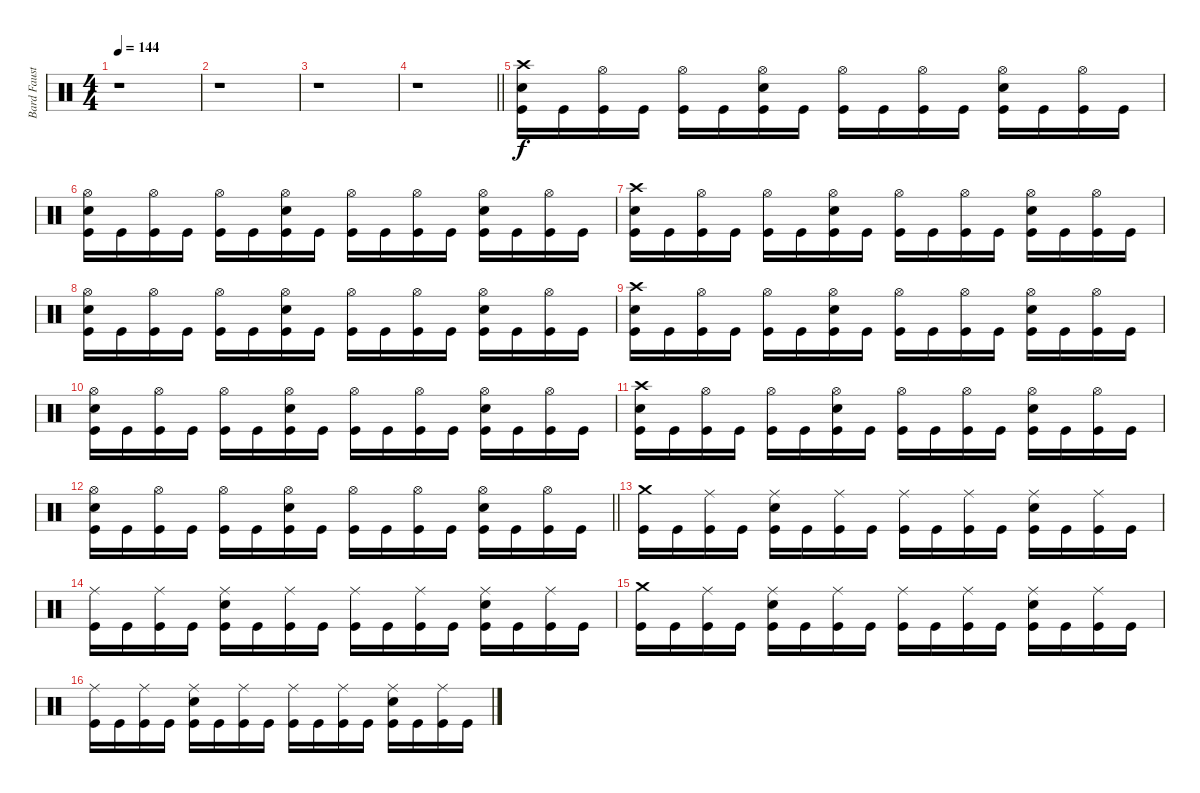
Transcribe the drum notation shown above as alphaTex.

\track ("Bard Faust" "Bard Faust") {instrument percussion}
\staff {score}
\articulation defaults
\ts (4 4)
\tempo 144
\clef neutral
\ks c
r.1{dy f} |
r.1 |
r.1 |
\barLineRight lightlight
r.1 |
\section ("" "")
("Crash high (hit)" "Snare (hit) 2" "Kick (hit)").16 "Kick (hit)".16 ("Hi-Hat (open)" "Kick (hit)").16 "Kick (hit)".16 ("Hi-Hat (open)" "Kick (hit)").16 "Kick (hit)".16 ("Hi-Hat (open)" "Snare (hit) 2" "Kick (hit)").16 "Kick (hit)".16 ("Hi-Hat (open)" "Kick (hit)").16 "Kick (hit)".16 ("Hi-Hat (open)" "Kick (hit)").16 "Kick (hit)".16 ("Hi-Hat (open)" "Snare (hit) 2" "Kick (hit)").16 "Kick (hit)".16 ("Hi-Hat (open)" "Kick (hit)").16 "Kick (hit)".16 |
("Hi-Hat (open)" "Snare (hit) 2" "Kick (hit)").16 "Kick (hit)".16 ("Hi-Hat (open)" "Kick (hit)").16 "Kick (hit)".16 ("Hi-Hat (open)" "Kick (hit)").16 "Kick (hit)".16 ("Hi-Hat (open)" "Snare (hit) 2" "Kick (hit)").16 "Kick (hit)".16 ("Hi-Hat (open)" "Kick (hit)").16 "Kick (hit)".16 ("Hi-Hat (open)" "Kick (hit)").16 "Kick (hit)".16 ("Hi-Hat (open)" "Snare (hit) 2" "Kick (hit)").16 "Kick (hit)".16 ("Hi-Hat (open)" "Kick (hit)").16 "Kick (hit)".16 |
("Crash high (hit)" "Snare (hit) 2" "Kick (hit)").16 "Kick (hit)".16 ("Hi-Hat (open)" "Kick (hit)").16 "Kick (hit)".16 ("Hi-Hat (open)" "Kick (hit)").16 "Kick (hit)".16 ("Hi-Hat (open)" "Snare (hit) 2" "Kick (hit)").16 "Kick (hit)".16 ("Hi-Hat (open)" "Kick (hit)").16 "Kick (hit)".16 ("Hi-Hat (open)" "Kick (hit)").16 "Kick (hit)".16 ("Hi-Hat (open)" "Snare (hit) 2" "Kick (hit)").16 "Kick (hit)".16 ("Hi-Hat (open)" "Kick (hit)").16 "Kick (hit)".16 |
("Hi-Hat (open)" "Snare (hit) 2" "Kick (hit)").16 "Kick (hit)".16 ("Hi-Hat (open)" "Kick (hit)").16 "Kick (hit)".16 ("Hi-Hat (open)" "Kick (hit)").16 "Kick (hit)".16 ("Hi-Hat (open)" "Snare (hit) 2" "Kick (hit)").16 "Kick (hit)".16 ("Hi-Hat (open)" "Kick (hit)").16 "Kick (hit)".16 ("Hi-Hat (open)" "Kick (hit)").16 "Kick (hit)".16 ("Hi-Hat (open)" "Snare (hit) 2" "Kick (hit)").16 "Kick (hit)".16 ("Hi-Hat (open)" "Kick (hit)").16 "Kick (hit)".16 |
("Crash high (hit)" "Snare (hit) 2" "Kick (hit)").16 "Kick (hit)".16 ("Hi-Hat (open)" "Kick (hit)").16 "Kick (hit)".16 ("Hi-Hat (open)" "Kick (hit)").16 "Kick (hit)".16 ("Hi-Hat (open)" "Snare (hit) 2" "Kick (hit)").16 "Kick (hit)".16 ("Hi-Hat (open)" "Kick (hit)").16 "Kick (hit)".16 ("Hi-Hat (open)" "Kick (hit)").16 "Kick (hit)".16 ("Hi-Hat (open)" "Snare (hit) 2" "Kick (hit)").16 "Kick (hit)".16 ("Hi-Hat (open)" "Kick (hit)").16 "Kick (hit)".16 |
("Hi-Hat (open)" "Snare (hit) 2" "Kick (hit)").16 "Kick (hit)".16 ("Hi-Hat (open)" "Kick (hit)").16 "Kick (hit)".16 ("Hi-Hat (open)" "Kick (hit)").16 "Kick (hit)".16 ("Hi-Hat (open)" "Snare (hit) 2" "Kick (hit)").16 "Kick (hit)".16 ("Hi-Hat (open)" "Kick (hit)").16 "Kick (hit)".16 ("Hi-Hat (open)" "Kick (hit)").16 "Kick (hit)".16 ("Hi-Hat (open)" "Snare (hit) 2" "Kick (hit)").16 "Kick (hit)".16 ("Hi-Hat (open)" "Kick (hit)").16 "Kick (hit)".16 |
("Crash high (hit)" "Snare (hit) 2" "Kick (hit)").16 "Kick (hit)".16 ("Hi-Hat (open)" "Kick (hit)").16 "Kick (hit)".16 ("Hi-Hat (open)" "Kick (hit)").16 "Kick (hit)".16 ("Hi-Hat (open)" "Snare (hit) 2" "Kick (hit)").16 "Kick (hit)".16 ("Hi-Hat (open)" "Kick (hit)").16 "Kick (hit)".16 ("Hi-Hat (open)" "Kick (hit)").16 "Kick (hit)".16 ("Hi-Hat (open)" "Snare (hit) 2" "Kick (hit)").16 "Kick (hit)".16 ("Hi-Hat (open)" "Kick (hit)").16 "Kick (hit)".16 |
\barLineRight lightlight
("Hi-Hat (open)" "Snare (hit) 2" "Kick (hit)").16 "Kick (hit)".16 ("Hi-Hat (open)" "Kick (hit)").16 "Kick (hit)".16 ("Hi-Hat (open)" "Kick (hit)").16 "Kick (hit)".16 ("Hi-Hat (open)" "Snare (hit) 2" "Kick (hit)").16 "Kick (hit)".16 ("Hi-Hat (open)" "Kick (hit)").16 "Kick (hit)".16 ("Hi-Hat (open)" "Kick (hit)").16 "Kick (hit)".16 ("Hi-Hat (open)" "Snare (hit) 2" "Kick (hit)").16 "Kick (hit)".16 ("Hi-Hat (open)" "Kick (hit)").16 "Kick (hit)".16 |
\section ("" "")
("Crash medium (hit)" "Kick (hit)").16 "Kick (hit)".16 ("Ride (middle)" "Kick (hit)").16 "Kick (hit)".16 ("Ride (middle)" "Snare (hit) 2" "Kick (hit)").16 "Kick (hit)".16 ("Ride (middle)" "Kick (hit)").16 "Kick (hit)".16 ("Ride (middle)" "Kick (hit)").16 "Kick (hit)".16 ("Ride (middle)" "Kick (hit)").16 "Kick (hit)".16 ("Ride (middle)" "Snare (hit) 2" "Kick (hit)").16 "Kick (hit)".16 ("Ride (middle)" "Kick (hit)").16 "Kick (hit)".16 |
("Ride (middle)" "Kick (hit)").16 "Kick (hit)".16 ("Ride (middle)" "Kick (hit)").16 "Kick (hit)".16 ("Ride (middle)" "Snare (hit) 2" "Kick (hit)").16 "Kick (hit)".16 ("Ride (middle)" "Kick (hit)").16 "Kick (hit)".16 ("Ride (middle)" "Kick (hit)").16 "Kick (hit)".16 ("Ride (middle)" "Kick (hit)").16 "Kick (hit)".16 ("Ride (middle)" "Snare (hit) 2" "Kick (hit)").16 "Kick (hit)".16 ("Ride (middle)" "Kick (hit)").16 "Kick (hit)".16 |
("Crash medium (hit)" "Kick (hit)").16 "Kick (hit)".16 ("Ride (middle)" "Kick (hit)").16 "Kick (hit)".16 ("Ride (middle)" "Snare (hit) 2" "Kick (hit)").16 "Kick (hit)".16 ("Ride (middle)" "Kick (hit)").16 "Kick (hit)".16 ("Ride (middle)" "Kick (hit)").16 "Kick (hit)".16 ("Ride (middle)" "Kick (hit)").16 "Kick (hit)".16 ("Ride (middle)" "Snare (hit) 2" "Kick (hit)").16 "Kick (hit)".16 ("Ride (middle)" "Kick (hit)").16 "Kick (hit)".16 |
("Ride (middle)" "Kick (hit)").16 "Kick (hit)".16 ("Ride (middle)" "Kick (hit)").16 "Kick (hit)".16 ("Ride (middle)" "Snare (hit) 2" "Kick (hit)").16 "Kick (hit)".16 ("Ride (middle)" "Kick (hit)").16 "Kick (hit)".16 ("Ride (middle)" "Kick (hit)").16 "Kick (hit)".16 ("Ride (middle)" "Kick (hit)").16 "Kick (hit)".16 ("Ride (middle)" "Snare (hit) 2" "Kick (hit)").16 "Kick (hit)".16 ("Ride (middle)" "Kick (hit)").16 "Kick (hit)".16
